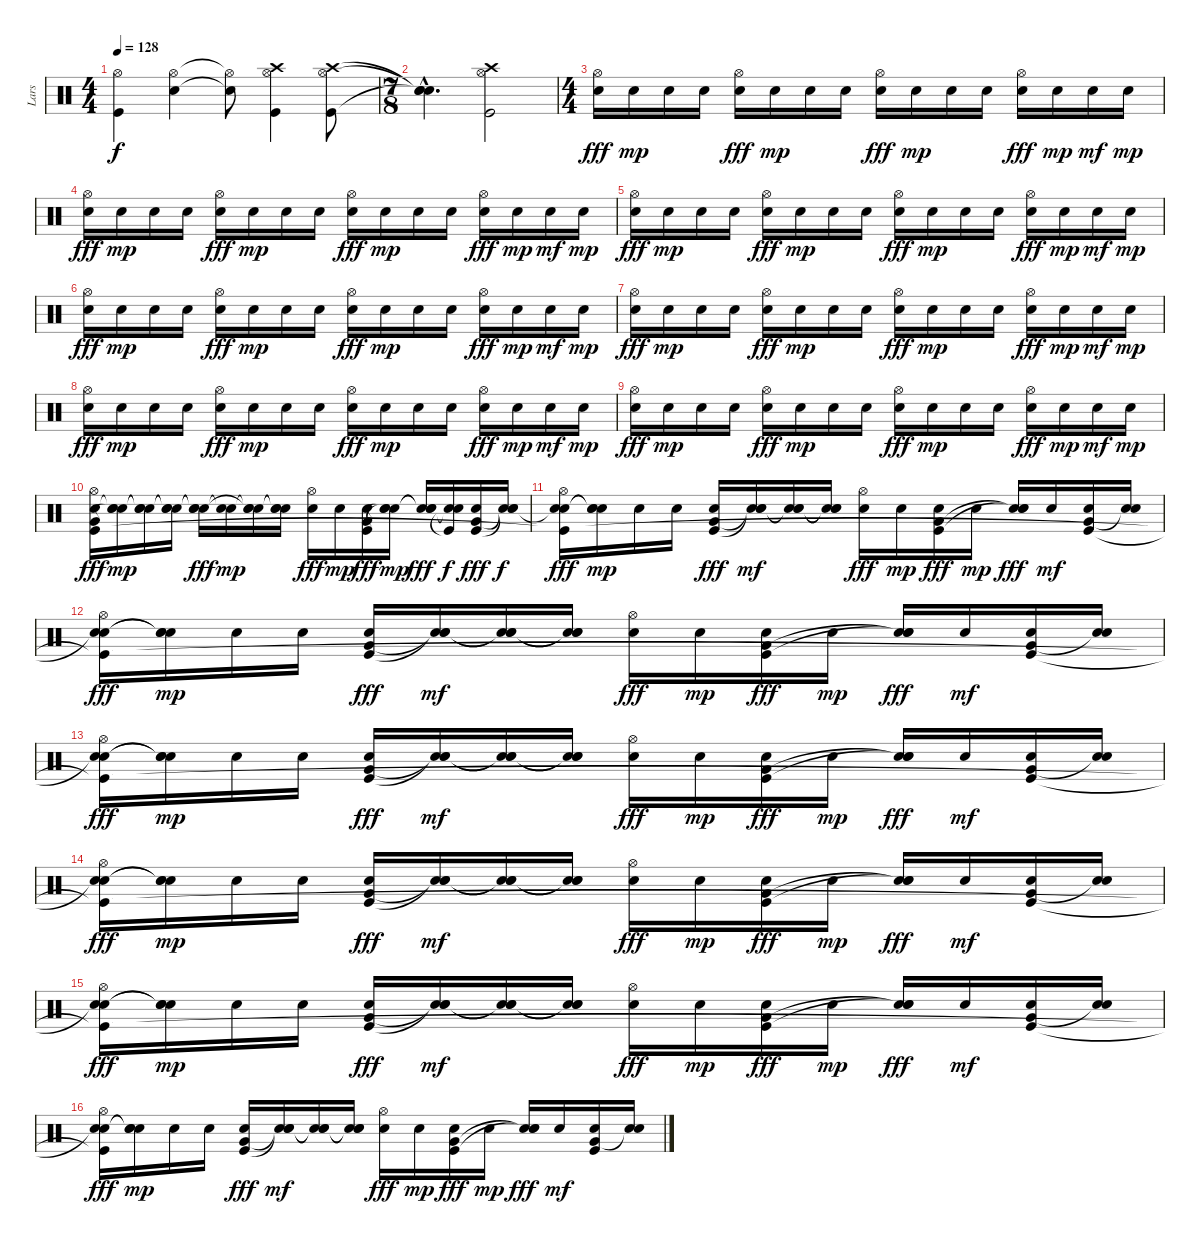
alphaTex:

\track ("Lars" "Lars") {instrument percussion}
\staff {score}
\articulation defaults
\ts (4 4)
\tempo 128
\clef neutral
\ks c
("Hi-Hat (open)" "Kick (hit)").4{dy f} ("Hi-Hat (open)" "Snare (hit) 2").4 ("Hi-Hat (open)"{t} "Snare (hit)"{t}).8 ("Crash high (hit)" "Hi-Hat (open)" "Kick (hit)").4 ("Crash high (hit)" "Hi-Hat (open)" "Kick (hit)").8 |
\ts (7 8)
("Snare (hit)"{hac t} "Snare (hit)"{hac t} "Snare (hit)"{hac t}).4{d} ("Crash high (hit)" "Hi-Hat (open)" "Kick (hit)").2 |
\ts (4 4)
("Hi-Hat (open)" "Snare (hit) 2").16{dy fff volume 9} "Snare (hit) 2".16{dy mp} "Snare (hit) 2".16 "Snare (hit) 2".16 ("Hi-Hat (open)" "Snare (hit) 2").16{dy fff} "Snare (hit) 2".16{dy mp} "Snare (hit) 2".16 "Snare (hit) 2".16 ("Hi-Hat (open)" "Snare (hit) 2").16{dy fff} "Snare (hit) 2".16{dy mp} "Snare (hit) 2".16 "Snare (hit) 2".16 ("Hi-Hat (open)" "Snare (hit) 2").16{dy fff} "Snare (hit) 2".16{dy mp} "Snare (hit) 2".16{dy mf} "Snare (hit) 2".16{dy mp} |
("Hi-Hat (open)" "Snare (hit) 2").16{dy fff} "Snare (hit) 2".16{dy mp} "Snare (hit) 2".16 "Snare (hit) 2".16 ("Hi-Hat (open)" "Snare (hit) 2").16{dy fff} "Snare (hit) 2".16{dy mp} "Snare (hit) 2".16 "Snare (hit) 2".16 ("Hi-Hat (open)" "Snare (hit) 2").16{dy fff} "Snare (hit) 2".16{dy mp} "Snare (hit) 2".16 "Snare (hit) 2".16 ("Hi-Hat (open)" "Snare (hit) 2").16{dy fff} "Snare (hit) 2".16{dy mp} "Snare (hit) 2".16{dy mf} "Snare (hit) 2".16{dy mp} |
("Hi-Hat (open)" "Snare (hit) 2").16{dy fff} "Snare (hit) 2".16{dy mp} "Snare (hit) 2".16 "Snare (hit) 2".16 ("Hi-Hat (open)" "Snare (hit) 2").16{dy fff} "Snare (hit) 2".16{dy mp} "Snare (hit) 2".16 "Snare (hit) 2".16 ("Hi-Hat (open)" "Snare (hit) 2").16{dy fff} "Snare (hit) 2".16{dy mp} "Snare (hit) 2".16 "Snare (hit) 2".16 ("Hi-Hat (open)" "Snare (hit) 2").16{dy fff} "Snare (hit) 2".16{dy mp} "Snare (hit) 2".16{dy mf} "Snare (hit) 2".16{dy mp} |
("Hi-Hat (open)" "Snare (hit) 2").16{dy fff} "Snare (hit) 2".16{dy mp} "Snare (hit) 2".16 "Snare (hit) 2".16 ("Hi-Hat (open)" "Snare (hit) 2").16{dy fff} "Snare (hit) 2".16{dy mp} "Snare (hit) 2".16 "Snare (hit) 2".16 ("Hi-Hat (open)" "Snare (hit) 2").16{dy fff} "Snare (hit) 2".16{dy mp} "Snare (hit) 2".16 "Snare (hit) 2".16 ("Hi-Hat (open)" "Snare (hit) 2").16{dy fff} "Snare (hit) 2".16{dy mp} "Snare (hit) 2".16{dy mf} "Snare (hit) 2".16{dy mp} |
("Hi-Hat (open)" "Snare (hit) 2").16{dy fff} "Snare (hit) 2".16{dy mp} "Snare (hit) 2".16 "Snare (hit) 2".16 ("Hi-Hat (open)" "Snare (hit) 2").16{dy fff} "Snare (hit) 2".16{dy mp} "Snare (hit) 2".16 "Snare (hit) 2".16 ("Hi-Hat (open)" "Snare (hit) 2").16{dy fff} "Snare (hit) 2".16{dy mp} "Snare (hit) 2".16 "Snare (hit) 2".16 ("Hi-Hat (open)" "Snare (hit) 2").16{dy fff} "Snare (hit) 2".16{dy mp} "Snare (hit) 2".16{dy mf} "Snare (hit) 2".16{dy mp} |
("Hi-Hat (open)" "Snare (hit) 2").16{dy fff} "Snare (hit) 2".16{dy mp} "Snare (hit) 2".16 "Snare (hit) 2".16 ("Hi-Hat (open)" "Snare (hit) 2").16{dy fff} "Snare (hit) 2".16{dy mp} "Snare (hit) 2".16 "Snare (hit) 2".16 ("Hi-Hat (open)" "Snare (hit) 2").16{dy fff} "Snare (hit) 2".16{dy mp} "Snare (hit) 2".16 "Snare (hit) 2".16 ("Hi-Hat (open)" "Snare (hit) 2").16{dy fff} "Snare (hit) 2".16{dy mp} "Snare (hit) 2".16{dy mf} "Snare (hit) 2".16{dy mp} |
("Hi-Hat (open)" "Snare (hit) 2").16{dy fff} "Snare (hit) 2".16{dy mp} "Snare (hit) 2".16 "Snare (hit) 2".16 ("Hi-Hat (open)" "Snare (hit) 2").16{dy fff} "Snare (hit) 2".16{dy mp} "Snare (hit) 2".16 "Snare (hit) 2".16 ("Hi-Hat (open)" "Snare (hit) 2").16{dy fff} "Snare (hit) 2".16{dy mp} "Snare (hit) 2".16 "Snare (hit) 2".16 ("Hi-Hat (open)" "Snare (hit) 2").16{dy fff} "Snare (hit) 2".16{dy mp} "Snare (hit) 2".16{dy mf} "Snare (hit) 2".16{dy mp} |
("Hi-Hat (open)" "Snare (hit) 2" "Very Low Tom (hit)" "Kick (hit)").16{dy fff} ("Snare (hit) 2" "Snare (hit)"{t} "Snare (hit)"{t}).16{dy mp} ("Snare (hit) 2" "Snare (hit)"{t} "Snare (hit)"{t}).16 ("Snare (hit) 2" "Snare (hit)"{t} "Snare (hit)"{t}).16 ("Snare (hit) 2" "Snare (hit)"{t} "Snare (hit)"{t}).16{dy fff} ("Snare (hit) 2" "Snare (hit)"{t}).16{dy mp} ("Snare (hit) 2" "Snare (hit)"{t} "Snare (hit)"{t}).16 ("Snare (hit) 2" "Snare (hit)"{t} "Snare (hit)"{t}).16 ("Hi-Hat (open)" "Snare (hit) 2").16{dy fff} "Snare (hit) 2".16{dy mp} ("Snare (hit) 2" "Very Low Tom (hit)" "Kick (hit)").16{dy fff} ("Snare (hit) 2" "Snare (hit)"{t} "Snare (hit)"{t}).16{dy mp} ("Snare (hit) 2" "Snare (hit)"{t} "Snare (hit)"{t}).16{dy fff} ("Snare (hit) 2" "Snare (hit)"{t} "Kick (hit)"{t}).16{dy f} ("Snare (hit) 2" "Very Low Tom (hit)" "Kick (hit)").16{dy fff} ("Snare (hit) 2" "Snare (hit)"{t} "Snare (hit)"{t}).16{dy f} |
("Hi-Hat (open)" "Snare (hit) 2" "Snare (hit)"{t} "Kick (hit)"{t}).16{dy fff} ("Snare (hit) 2" "Snare (hit)"{t} "Snare (hit)"{t}).16{dy mp} "Snare (hit) 2".16 "Snare (hit) 2".16 ("Snare (hit) 2" "Very Low Tom (hit)" "Kick (hit)").16{dy fff} ("Snare (hit) 2" "Snare (hit)"{t} "Snare (hit)"{t}).16{dy mf} ("Snare (hit) 2" "Snare (hit)"{t} "Snare (hit)"{t}).16 ("Snare (hit) 2" "Snare (hit)"{t} "Snare (hit)"{t}).16 ("Hi-Hat (open)" "Snare (hit) 2").16{dy fff} "Snare (hit) 2".16{dy mp} ("Snare (hit) 2" "Very Low Tom (hit)" "Kick (hit)").16{dy fff} "Snare (hit) 2".16{dy mp} ("Snare (hit) 2" "Snare (hit)"{t} "Snare (hit)"{t}).16{dy fff} "Snare (hit) 2".16{dy mf} ("Snare (hit) 2" "Very Low Tom (hit)" "Kick (hit)").16 ("Snare (hit) 2" "Snare (hit)"{t}).16 |
("Hi-Hat (open)" "Snare (hit) 2" "Snare (hit)"{t} "Kick (hit)"{t}).16{dy fff} ("Snare (hit) 2" "Snare (hit)"{t} "Snare (hit)"{t}).16{dy mp} "Snare (hit) 2".16 "Snare (hit) 2".16 ("Snare (hit) 2" "Very Low Tom (hit)" "Kick (hit)").16{dy fff} ("Snare (hit) 2" "Snare (hit)"{t} "Snare (hit)"{t}).16{dy mf} ("Snare (hit) 2" "Snare (hit)"{t} "Snare (hit)"{t}).16 ("Snare (hit) 2" "Snare (hit)"{t} "Snare (hit)"{t}).16 ("Hi-Hat (open)" "Snare (hit) 2").16{dy fff} "Snare (hit) 2".16{dy mp} ("Snare (hit) 2" "Very Low Tom (hit)" "Kick (hit)").16{dy fff} "Snare (hit) 2".16{dy mp} ("Snare (hit) 2" "Snare (hit)"{t} "Snare (hit)"{t}).16{dy fff} "Snare (hit) 2".16{dy mf} ("Snare (hit) 2" "Very Low Tom (hit)" "Kick (hit)").16 ("Snare (hit) 2" "Snare (hit)"{t}).16 |
("Hi-Hat (open)" "Snare (hit) 2" "Snare (hit)"{t} "Kick (hit)"{t}).16{dy fff} ("Snare (hit) 2" "Snare (hit)"{t} "Snare (hit)"{t}).16{dy mp} "Snare (hit) 2".16 "Snare (hit) 2".16 ("Snare (hit) 2" "Very Low Tom (hit)" "Kick (hit)").16{dy fff} ("Snare (hit) 2" "Snare (hit)"{t} "Snare (hit)"{t}).16{dy mf} ("Snare (hit) 2" "Snare (hit)"{t} "Snare (hit)"{t}).16 ("Snare (hit) 2" "Snare (hit)"{t} "Snare (hit)"{t}).16 ("Hi-Hat (open)" "Snare (hit) 2").16{dy fff} "Snare (hit) 2".16{dy mp} ("Snare (hit) 2" "Very Low Tom (hit)" "Kick (hit)").16{dy fff} "Snare (hit) 2".16{dy mp} ("Snare (hit) 2" "Snare (hit)"{t} "Snare (hit)"{t}).16{dy fff} "Snare (hit) 2".16{dy mf} ("Snare (hit) 2" "Very Low Tom (hit)" "Kick (hit)").16 ("Snare (hit) 2" "Snare (hit)"{t}).16 |
("Hi-Hat (open)" "Snare (hit) 2" "Snare (hit)"{t} "Kick (hit)"{t}).16{dy fff} ("Snare (hit) 2" "Snare (hit)"{t} "Snare (hit)"{t}).16{dy mp} "Snare (hit) 2".16 "Snare (hit) 2".16 ("Snare (hit) 2" "Very Low Tom (hit)" "Kick (hit)").16{dy fff} ("Snare (hit) 2" "Snare (hit)"{t} "Snare (hit)"{t}).16{dy mf} ("Snare (hit) 2" "Snare (hit)"{t} "Snare (hit)"{t}).16 ("Snare (hit) 2" "Snare (hit)"{t} "Snare (hit)"{t}).16 ("Hi-Hat (open)" "Snare (hit) 2").16{dy fff} "Snare (hit) 2".16{dy mp} ("Snare (hit) 2" "Very Low Tom (hit)" "Kick (hit)").16{dy fff} "Snare (hit) 2".16{dy mp} ("Snare (hit) 2" "Snare (hit)"{t} "Snare (hit)"{t}).16{dy fff} "Snare (hit) 2".16{dy mf} ("Snare (hit) 2" "Very Low Tom (hit)" "Kick (hit)").16 ("Snare (hit) 2" "Snare (hit)"{t}).16 |
("Hi-Hat (open)" "Snare (hit) 2" "Snare (hit)"{t} "Kick (hit)"{t}).16{dy fff} ("Snare (hit) 2" "Snare (hit)"{t} "Snare (hit)"{t}).16{dy mp} "Snare (hit) 2".16 "Snare (hit) 2".16 ("Snare (hit) 2" "Very Low Tom (hit)" "Kick (hit)").16{dy fff} ("Snare (hit) 2" "Snare (hit)"{t} "Snare (hit)"{t}).16{dy mf} ("Snare (hit) 2" "Snare (hit)"{t} "Snare (hit)"{t}).16 ("Snare (hit) 2" "Snare (hit)"{t} "Snare (hit)"{t}).16 ("Hi-Hat (open)" "Snare (hit) 2").16{dy fff} "Snare (hit) 2".16{dy mp} ("Snare (hit) 2" "Very Low Tom (hit)" "Kick (hit)").16{dy fff} "Snare (hit) 2".16{dy mp} ("Snare (hit) 2" "Snare (hit)"{t} "Snare (hit)"{t}).16{dy fff} "Snare (hit) 2".16{dy mf} ("Snare (hit) 2" "Very Low Tom (hit)" "Kick (hit)").16 ("Snare (hit) 2" "Snare (hit)"{t}).16 |
("Hi-Hat (open)" "Snare (hit) 2" "Snare (hit)"{t} "Kick (hit)"{t}).16{dy fff} ("Snare (hit) 2" "Snare (hit)"{t} "Snare (hit)"{t}).16{dy mp} "Snare (hit) 2".16 "Snare (hit) 2".16 ("Snare (hit) 2" "Very Low Tom (hit)" "Kick (hit)").16{dy fff} ("Snare (hit) 2" "Snare (hit)"{t} "Snare (hit)"{t}).16{dy mf} ("Snare (hit) 2" "Snare (hit)"{t} "Snare (hit)"{t}).16 ("Snare (hit) 2" "Snare (hit)"{t} "Snare (hit)"{t}).16 ("Hi-Hat (open)" "Snare (hit) 2").16{dy fff} "Snare (hit) 2".16{dy mp} ("Snare (hit) 2" "Very Low Tom (hit)" "Kick (hit)").16{dy fff} "Snare (hit) 2".16{dy mp} ("Snare (hit) 2" "Snare (hit)"{t} "Snare (hit)"{t}).16{dy fff} "Snare (hit) 2".16{dy mf} ("Snare (hit) 2" "Very Low Tom (hit)" "Kick (hit)").16 ("Snare (hit) 2" "Snare (hit)"{t}).16
